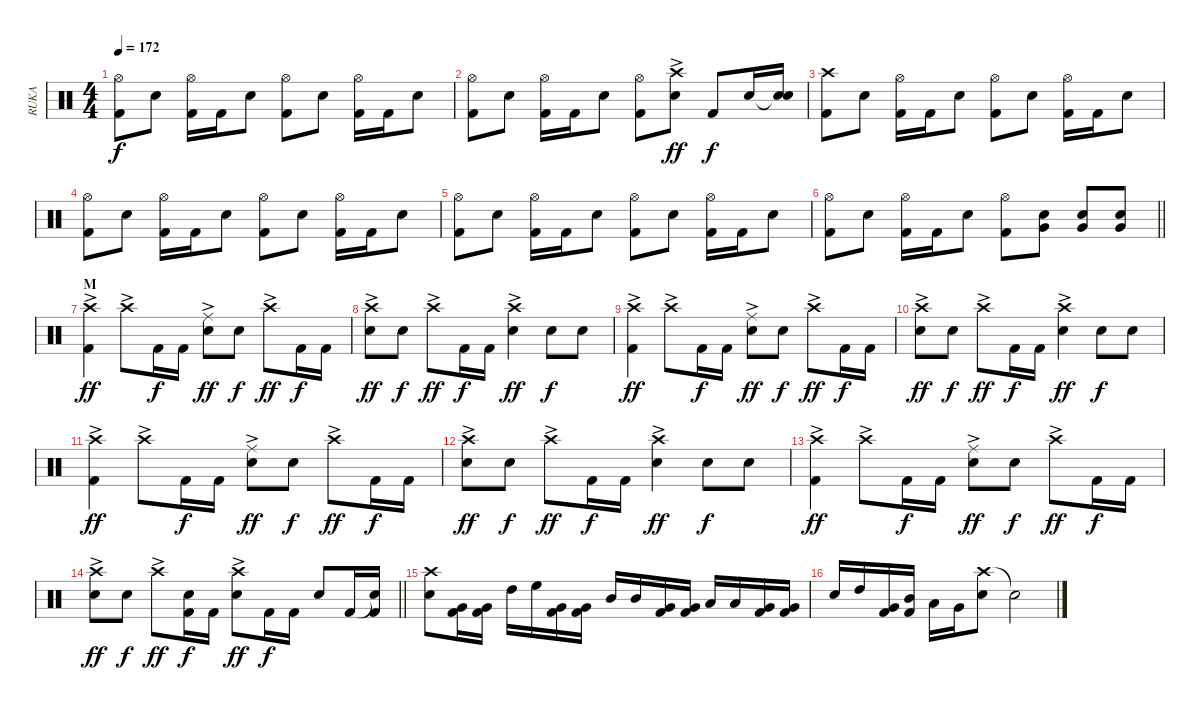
\track ("RUKA" "RUKA") {instrument percussion}
\staff {score}
\articulation defaults
\ts (4 4)
\tempo 172
\clef neutral
\ks c
("Hi-Hat (open)" "Kick (hit) 2").8{dy f} "Snare (hit) 2".8 ("Hi-Hat (open)" "Kick (hit) 2").16 "Kick (hit) 2".16 "Snare (hit) 2".8 ("Hi-Hat (open)" "Kick (hit) 2").8 "Snare (hit) 2".8 ("Hi-Hat (open)" "Kick (hit) 2").16 "Kick (hit) 2".16 "Snare (hit) 2".8 |
("Hi-Hat (open)" "Kick (hit) 2").8 "Snare (hit) 2".8 ("Hi-Hat (open)" "Kick (hit) 2").16 "Kick (hit) 2".16 "Snare (hit) 2".8 ("Hi-Hat (open)" "Kick (hit) 2").8 ("Crash high (hit)"{ac} "Snare (hit) 2").8{dy ff} "Kick (hit) 2".8{dy f} "Snare (hit) 2".16 ("Snare (hit)"{t} "Snare (hit) 2").16 |
("Crash high (hit)" "Kick (hit) 2").8 "Snare (hit) 2".8 ("Hi-Hat (open)" "Kick (hit) 2").16 "Kick (hit) 2".16 "Snare (hit) 2".8 ("Hi-Hat (open)" "Kick (hit) 2").8 "Snare (hit) 2".8 ("Hi-Hat (open)" "Kick (hit) 2").16 "Kick (hit) 2".16 "Snare (hit) 2".8 |
("Hi-Hat (open)" "Kick (hit) 2").8 "Snare (hit) 2".8 ("Hi-Hat (open)" "Kick (hit) 2").16 "Kick (hit) 2".16 "Snare (hit) 2".8 ("Hi-Hat (open)" "Kick (hit) 2").8 "Snare (hit) 2".8 ("Hi-Hat (open)" "Kick (hit) 2").16 "Kick (hit) 2".16 "Snare (hit) 2".8 |
("Hi-Hat (open)" "Kick (hit) 2").8 "Snare (hit) 2".8 ("Hi-Hat (open)" "Kick (hit) 2").16 "Kick (hit) 2".16 "Snare (hit) 2".8 ("Hi-Hat (open)" "Kick (hit) 2").8 "Snare (hit) 2".8 ("Hi-Hat (open)" "Kick (hit) 2").16 "Kick (hit) 2".16 "Snare (hit) 2".8 |
\barLineRight lightlight
("Hi-Hat (open)" "Kick (hit) 2").8 "Snare (hit) 2".8 ("Hi-Hat (open)" "Kick (hit) 2").16 "Kick (hit) 2".16 "Snare (hit) 2".8 ("Hi-Hat (open)" "Kick (hit) 2").8 ("Very Low Tom (hit)" "Snare (hit) 2").8 ("Very Low Tom (hit)" "Snare (hit) 2").8 ("Very Low Tom (hit)" "Snare (hit) 2").8 |
\section ("" "M")
("Crash high (hit)"{ac} "Kick (hit) 2").4{dy ff} "Crash high (hit)"{ac}.8 "Kick (hit) 2".16{dy f} "Kick (hit) 2".16 ("Ride (middle)"{ac} "Snare (hit) 2").8{dy ff} "Snare (hit) 2".8{dy f} "Crash high (hit)"{ac}.8{dy ff} "Kick (hit) 2".16{dy f} "Kick (hit) 2".16 |
("Crash high (hit)"{ac} "Snare (hit) 2").8{dy ff} "Snare (hit) 2".8{dy f} "Crash high (hit)"{ac}.8{dy ff} "Kick (hit) 2".16{dy f} "Kick (hit) 2".16 ("Crash high (hit)"{ac} "Snare (hit) 2").4{dy ff} "Snare (hit) 2".8{dy f} "Snare (hit) 2".8 |
("Crash high (hit)"{ac} "Kick (hit) 2").4{dy ff} "Crash high (hit)"{ac}.8 "Kick (hit) 2".16{dy f} "Kick (hit) 2".16 ("Ride (middle)"{ac} "Snare (hit) 2").8{dy ff} "Snare (hit) 2".8{dy f} "Crash high (hit)"{ac}.8{dy ff} "Kick (hit) 2".16{dy f} "Kick (hit) 2".16 |
("Crash high (hit)"{ac} "Snare (hit) 2").8{dy ff} "Snare (hit) 2".8{dy f} "Crash high (hit)"{ac}.8{dy ff} "Kick (hit) 2".16{dy f} "Kick (hit) 2".16 ("Crash high (hit)"{ac} "Snare (hit) 2").4{dy ff} "Snare (hit) 2".8{dy f} "Snare (hit) 2".8 |
("Crash high (hit)"{ac} "Kick (hit) 2").4{dy ff} "Crash high (hit)"{ac}.8 "Kick (hit) 2".16{dy f} "Kick (hit) 2".16 ("Ride (middle)"{ac} "Snare (hit) 2").8{dy ff} "Snare (hit) 2".8{dy f} "Crash high (hit)"{ac}.8{dy ff} "Kick (hit) 2".16{dy f} "Kick (hit) 2".16 |
("Crash high (hit)"{ac} "Snare (hit) 2").8{dy ff} "Snare (hit) 2".8{dy f} "Crash high (hit)"{ac}.8{dy ff} "Kick (hit) 2".16{dy f} "Kick (hit) 2".16 ("Crash high (hit)"{ac} "Snare (hit) 2").4{dy ff} "Snare (hit) 2".8{dy f} "Snare (hit) 2".8 |
("Crash high (hit)"{ac} "Kick (hit) 2").4{dy ff} "Crash high (hit)"{ac}.8 "Kick (hit) 2".16{dy f} "Kick (hit) 2".16 ("Ride (middle)"{ac} "Snare (hit) 2").8{dy ff} "Snare (hit) 2".8{dy f} "Crash high (hit)"{ac}.8{dy ff} "Kick (hit) 2".16{dy f} "Kick (hit) 2".16 |
\barLineRight lightlight
("Crash high (hit)"{ac} "Snare (hit) 2").8{dy ff} "Snare (hit) 2".8{dy f} "Crash high (hit)"{ac}.8{dy ff} ("Snare (hit) 2" "Kick (hit) 2").16{dy f} "Kick (hit) 2".16 ("Crash high (hit)"{ac} "Snare (hit) 2").8{dy ff} "Kick (hit) 2".16{dy f} "Kick (hit) 2".16 "Snare (hit) 2".8 "Kick (hit) 2".16 ("Snare (hit)"{t} "Kick (hit) 2").16 |
("Crash high (hit)" "Snare (hit) 2").8 ("Very Low Tom (hit)" "Kick (hit) 2").16 ("Very Low Tom (hit)" "Kick (hit) 2").16 "High Tom (hit)".16 "High Floor Tom (hit)".16 ("Very Low Tom (hit)" "Kick (hit) 2").16 ("Very Low Tom (hit)" "Kick (hit) 2").16 "Mid Tom (hit)".16 "Mid Tom (hit)".16 ("Very Low Tom (hit)" "Kick (hit) 2").16 ("Very Low Tom (hit)" "Kick (hit) 2").16 "Low Tom (hit)".16 "Low Tom (hit)".16 ("Very Low Tom (hit)" "Kick (hit) 2").16 ("Very Low Tom (hit)" "Kick (hit) 2").16 |
"Snare (hit) 2".16 "High Tom (hit)".16 ("Very Low Tom (hit)" "Kick (hit) 2").16 ("Mid Tom (hit)" "Kick (hit) 2").16 "Low Tom (hit)".16 "Very Low Tom (hit)".16 ("Crash high (hit)" "Snare (hit) 2").8 "Snare (hit)"{t}.2
